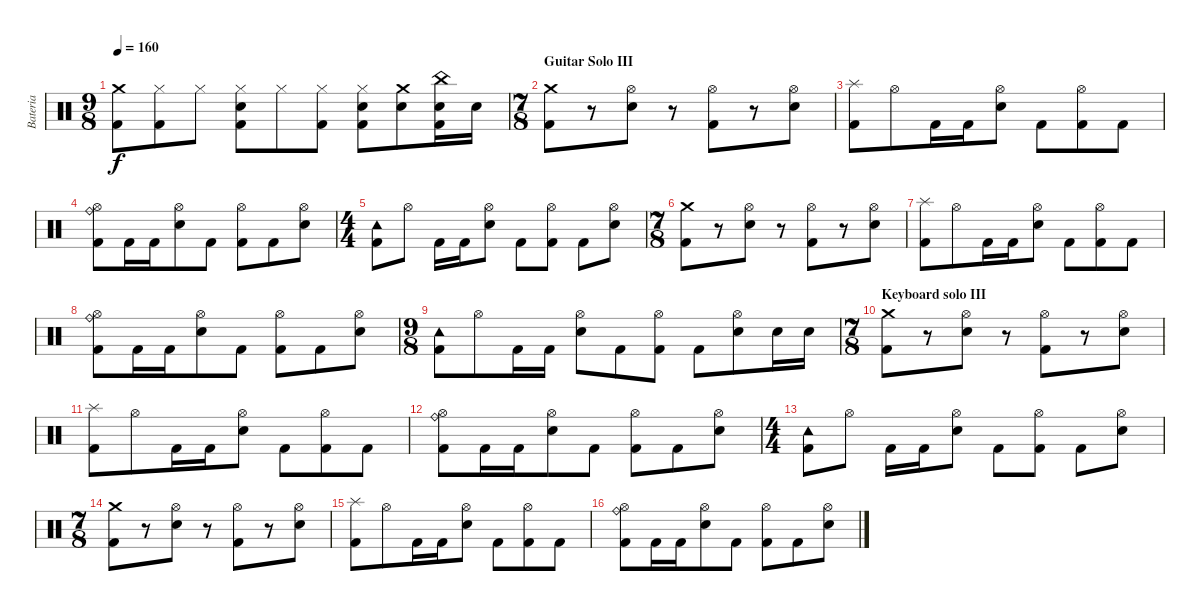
\track ("Bateria" "Bateria") {instrument percussion}
\staff {score}
\articulation defaults
\ts (9 8)
\tempo 160
\clef neutral
\ks c
("Crash medium (hit)" "Kick (hit) 2").8{dy f} ("Hi-Hat (closed)" "Kick (hit) 2").8 "Hi-Hat (closed)".8 ("Hi-Hat (closed)" "Electric Snare (hit)" "Kick (hit) 2").8 "Hi-Hat (closed)".8 ("Hi-Hat (closed)" "Kick (hit) 2").8 ("Hi-Hat (closed)" "Electric Snare (hit)" "Kick (hit) 2").8 ("Crash medium (hit)" "Electric Snare (hit)").8 ("China (hit)" "Electric Snare (hit)" "Kick (hit) 2").16 "Electric Snare (hit)".16 |
\ts (7 8)
\section ("" "Guitar Solo III")
("Crash medium (hit)" "Kick (hit) 2").8 r.8 ("Hi-Hat (open)" "Electric Snare (hit)").8 r.8 ("Hi-Hat (open)" "Kick (hit) 2").8 r.8 ("Hi-Hat (open)" "Electric Snare (hit)").8 |
("Splash (hit)" "Kick (hit) 2").8 "Hi-Hat (open)".8 "Kick (hit) 2".16 "Kick (hit) 2".16 ("Hi-Hat (open)" "Electric Snare (hit)").8 "Kick (hit) 2".8 ("Hi-Hat (open)" "Kick (hit) 2").8 "Kick (hit) 2".8 |
("Hi-Hat (open)" "Ride (bell)" "Kick (hit) 2").8 "Kick (hit) 2".16 "Kick (hit) 2".16 ("Hi-Hat (open)" "Electric Snare (hit)").8 "Kick (hit) 2".8 ("Hi-Hat (open)" "Kick (hit) 2").8 "Kick (hit) 2".8 ("Hi-Hat (open)" "Electric Snare (hit)").8 |
\ts (4 4)
("Tambourine (hit)" "Kick (hit) 2").8 "Hi-Hat (open)".8 "Kick (hit) 2".16 "Kick (hit) 2".16 ("Hi-Hat (open)" "Electric Snare (hit)").8 "Kick (hit) 2".8 ("Hi-Hat (open)" "Kick (hit) 2").8 "Kick (hit) 2".8 ("Hi-Hat (open)" "Electric Snare (hit)").8 |
\ts (7 8)
("Crash medium (hit)" "Kick (hit) 2").8 r.8 ("Hi-Hat (open)" "Electric Snare (hit)").8 r.8 ("Hi-Hat (open)" "Kick (hit) 2").8 r.8 ("Hi-Hat (open)" "Electric Snare (hit)").8 |
("Splash (hit)" "Kick (hit) 2").8 "Hi-Hat (open)".8 "Kick (hit) 2".16 "Kick (hit) 2".16 ("Hi-Hat (open)" "Electric Snare (hit)").8 "Kick (hit) 2".8 ("Hi-Hat (open)" "Kick (hit) 2").8 "Kick (hit) 2".8 |
("Hi-Hat (open)" "Ride (bell)" "Kick (hit) 2").8 "Kick (hit) 2".16 "Kick (hit) 2".16 ("Hi-Hat (open)" "Electric Snare (hit)").8 "Kick (hit) 2".8 ("Hi-Hat (open)" "Kick (hit) 2").8 "Kick (hit) 2".8 ("Hi-Hat (open)" "Electric Snare (hit)").8 |
\ts (9 8)
("Tambourine (hit)" "Kick (hit) 2").8 "Hi-Hat (open)".8 "Kick (hit) 2".16 "Kick (hit) 2".16 ("Hi-Hat (open)" "Electric Snare (hit)").8 "Kick (hit) 2".8 ("Hi-Hat (open)" "Kick (hit) 2").8 "Kick (hit) 2".8 ("Hi-Hat (open)" "Electric Snare (hit)").8 "Electric Snare (hit)".16 "Electric Snare (hit)".16 |
\ts (7 8)
\section ("" "Keyboard solo III")
("Crash medium (hit)" "Kick (hit) 2").8 r.8 ("Hi-Hat (open)" "Electric Snare (hit)").8 r.8 ("Hi-Hat (open)" "Kick (hit) 2").8 r.8 ("Hi-Hat (open)" "Electric Snare (hit)").8 |
("Splash (hit)" "Kick (hit) 2").8 "Hi-Hat (open)".8 "Kick (hit) 2".16 "Kick (hit) 2".16 ("Hi-Hat (open)" "Electric Snare (hit)").8 "Kick (hit) 2".8 ("Hi-Hat (open)" "Kick (hit) 2").8 "Kick (hit) 2".8 |
("Hi-Hat (open)" "Ride (bell)" "Kick (hit) 2").8 "Kick (hit) 2".16 "Kick (hit) 2".16 ("Hi-Hat (open)" "Electric Snare (hit)").8 "Kick (hit) 2".8 ("Hi-Hat (open)" "Kick (hit) 2").8 "Kick (hit) 2".8 ("Hi-Hat (open)" "Electric Snare (hit)").8 |
\ts (4 4)
("Tambourine (hit)" "Kick (hit) 2").8 "Hi-Hat (open)".8 "Kick (hit) 2".16 "Kick (hit) 2".16 ("Hi-Hat (open)" "Electric Snare (hit)").8 "Kick (hit) 2".8 ("Hi-Hat (open)" "Kick (hit) 2").8 "Kick (hit) 2".8 ("Hi-Hat (open)" "Electric Snare (hit)").8 |
\ts (7 8)
("Crash medium (hit)" "Kick (hit) 2").8 r.8 ("Hi-Hat (open)" "Electric Snare (hit)").8 r.8 ("Hi-Hat (open)" "Kick (hit) 2").8 r.8 ("Hi-Hat (open)" "Electric Snare (hit)").8 |
("Splash (hit)" "Kick (hit) 2").8 "Hi-Hat (open)".8 "Kick (hit) 2".16 "Kick (hit) 2".16 ("Hi-Hat (open)" "Electric Snare (hit)").8 "Kick (hit) 2".8 ("Hi-Hat (open)" "Kick (hit) 2").8 "Kick (hit) 2".8 |
("Hi-Hat (open)" "Ride (bell)" "Kick (hit) 2").8 "Kick (hit) 2".16 "Kick (hit) 2".16 ("Hi-Hat (open)" "Electric Snare (hit)").8 "Kick (hit) 2".8 ("Hi-Hat (open)" "Kick (hit) 2").8 "Kick (hit) 2".8 ("Hi-Hat (open)" "Electric Snare (hit)").8
